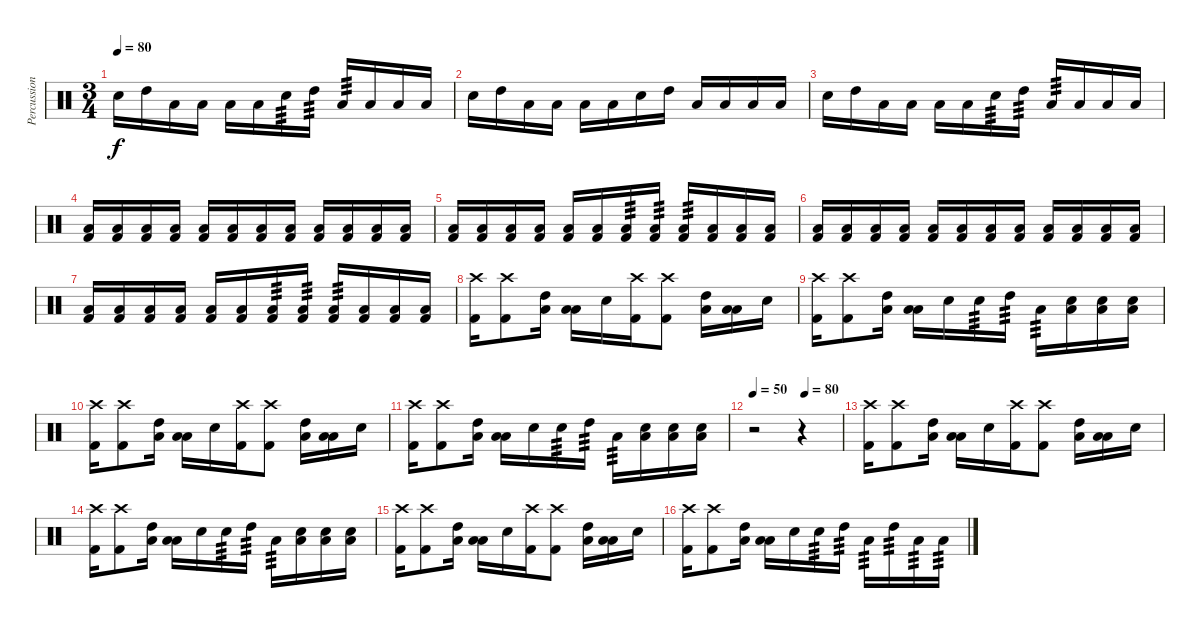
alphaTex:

\track ("Percussion" "Percussion") {instrument percussion}
\staff {score}
\articulation defaults
\ts (3 4)
\tempo 80
\clef neutral
\ks c "Electric Snare (hit)".16{dy f} "High Tom (hit)".16 "Low Tom (hit)".16 "Low Floor Tom (hit)".16 "Low Floor Tom (hit)".16 "Low Floor Tom (hit)".16 "Electric Snare (hit)".16{tp 3} "High Tom (hit)".16{tp 3} "Low Tom (hit)".16{tp 3} "Low Floor Tom (hit)".16 "Low Floor Tom (hit)".16 "Low Floor Tom (hit)".16
|
"Electric Snare (hit)".16 "High Tom (hit)".16 "Low Tom (hit)".16 "Low Floor Tom (hit)".16 "Low Floor Tom (hit)".16 "Low Floor Tom (hit)".16 "Electric Snare (hit)".16 "High Tom (hit)".16 "Low Tom (hit)".16 "Low Floor Tom (hit)".16 "Low Floor Tom (hit)".16 "Low Floor Tom (hit)".16 |
"Electric Snare (hit)".16 "High Tom (hit)".16 "Low Tom (hit)".16 "Low Floor Tom (hit)".16 "Low Floor Tom (hit)".16 "Low Floor Tom (hit)".16 "Electric Snare (hit)".16{tp 3} "High Tom (hit)".16{tp 3} "Low Tom (hit)".16{tp 3} "Low Floor Tom (hit)".16 "Low Floor Tom (hit)".16 "Low Floor Tom (hit)".16 |
("Low Floor Tom (hit)" "Kick (hit) 2").16 ("Low Floor Tom (hit)" "Kick (hit) 2").16 ("Low Floor Tom (hit)" "Kick (hit) 2").16 ("Low Floor Tom (hit)" "Kick (hit) 2").16 ("Low Floor Tom (hit)" "Kick (hit) 2").16 ("Low Floor Tom (hit)" "Kick (hit) 2").16 ("Low Floor Tom (hit)" "Kick (hit) 2").16 ("Low Floor Tom (hit)" "Kick (hit) 2").16 ("Low Floor Tom (hit)" "Kick (hit) 2").16 ("Low Floor Tom (hit)" "Kick (hit) 2").16 ("Low Floor Tom (hit)" "Kick (hit) 2").16 ("Low Floor Tom (hit)" "Kick (hit) 2").16 |
("Low Floor Tom (hit)" "Kick (hit) 2").16 ("Low Floor Tom (hit)" "Kick (hit) 2").16 ("Low Floor Tom (hit)" "Kick (hit) 2").16 ("Low Floor Tom (hit)" "Kick (hit) 2").16 ("Low Floor Tom (hit)" "Kick (hit) 2").16 ("Low Floor Tom (hit)" "Kick (hit) 2").16 ("Low Floor Tom (hit)" "Kick (hit) 2").16{tp 3} ("Low Floor Tom (hit)" "Kick (hit) 2").16{tp 3} ("Low Floor Tom (hit)" "Kick (hit) 2").16{tp 3} ("Low Floor Tom (hit)" "Kick (hit) 2").16 ("Low Floor Tom (hit)" "Kick (hit) 2").16 ("Low Floor Tom (hit)" "Kick (hit) 2").16 |
("Low Floor Tom (hit)" "Kick (hit) 2").16 ("Low Floor Tom (hit)" "Kick (hit) 2").16 ("Low Floor Tom (hit)" "Kick (hit) 2").16 ("Low Floor Tom (hit)" "Kick (hit) 2").16 ("Low Floor Tom (hit)" "Kick (hit) 2").16 ("Low Floor Tom (hit)" "Kick (hit) 2").16 ("Low Floor Tom (hit)" "Kick (hit) 2").16 ("Low Floor Tom (hit)" "Kick (hit) 2").16 ("Low Floor Tom (hit)" "Kick (hit) 2").16 ("Low Floor Tom (hit)" "Kick (hit) 2").16 ("Low Floor Tom (hit)" "Kick (hit) 2").16 ("Low Floor Tom (hit)" "Kick (hit) 2").16 |
("Low Floor Tom (hit)" "Kick (hit) 2").16 ("Low Floor Tom (hit)" "Kick (hit) 2").16 ("Low Floor Tom (hit)" "Kick (hit) 2").16 ("Low Floor Tom (hit)" "Kick (hit) 2").16 ("Low Floor Tom (hit)" "Kick (hit) 2").16 ("Low Floor Tom (hit)" "Kick (hit) 2").16 ("Low Floor Tom (hit)" "Kick (hit) 2").16{tp 3} ("Low Floor Tom (hit)" "Kick (hit) 2").16{tp 3} ("Low Floor Tom (hit)" "Kick (hit) 2").16{tp 3} ("Low Floor Tom (hit)" "Kick (hit) 2").16 ("Low Floor Tom (hit)" "Kick (hit) 2").16 ("Low Floor Tom (hit)" "Kick (hit) 2").16 |
("Crash high (hit)" "Kick (hit) 2").16 ("Crash high (hit)" "Kick (hit) 2").8 ("High Tom (hit)" "Low Tom (hit)").16 ("Low Tom (hit)" "Low Floor Tom (hit)").16 "Electric Snare (hit)".16 ("Crash high (hit)" "Kick (hit) 2").16 ("Crash high (hit)" "Kick (hit) 2").8 ("High Tom (hit)" "Low Tom (hit)").16 ("Low Tom (hit)" "Low Floor Tom (hit)").16 "Electric Snare (hit)".16 |
("Crash high (hit)" "Kick (hit) 2").16 ("Crash high (hit)" "Kick (hit) 2").8 ("High Tom (hit)" "Low Tom (hit)").16 ("Low Tom (hit)" "Low Floor Tom (hit)").16 "Electric Snare (hit)".16 "Electric Snare (hit)".16{tp 3} "High Tom (hit)".16{tp 3} "Low Tom (hit)".16{tp 3} ("Electric Snare (hit)" "Low Floor Tom (hit)").16 ("Electric Snare (hit)" "Low Floor Tom (hit)").16 ("Electric Snare (hit)" "Low Floor Tom (hit)").16 |
("Crash high (hit)" "Kick (hit) 2").16 ("Crash high (hit)" "Kick (hit) 2").8 ("High Tom (hit)" "Low Tom (hit)").16 ("Low Tom (hit)" "Low Floor Tom (hit)").16 "Electric Snare (hit)".16 ("Crash high (hit)" "Kick (hit) 2").16 ("Crash high (hit)" "Kick (hit) 2").8 ("High Tom (hit)" "Low Tom (hit)").16 ("Low Tom (hit)" "Low Floor Tom (hit)").16 "Electric Snare (hit)".16 |
("Crash high (hit)" "Kick (hit) 2").16 ("Crash high (hit)" "Kick (hit) 2").8 ("High Tom (hit)" "Low Tom (hit)").16 ("Low Tom (hit)" "Low Floor Tom (hit)").16 "Electric Snare (hit)".16 "Electric Snare (hit)".16{tp 3} "High Tom (hit)".16{tp 3} "Low Tom (hit)".16{tp 3} ("Electric Snare (hit)" "Low Floor Tom (hit)").16 ("Electric Snare (hit)" "Low Floor Tom (hit)").16 ("Electric Snare (hit)" "Low Floor Tom (hit)").16 |
\tempo 50
\tempo (80 0.5833333333333334)
r.2 r.4 |
("Crash high (hit)" "Kick (hit) 2").16 ("Crash high (hit)" "Kick (hit) 2").8 ("High Tom (hit)" "Low Tom (hit)").16 ("Low Tom (hit)" "Low Floor Tom (hit)").16 "Electric Snare (hit)".16 ("Crash high (hit)" "Kick (hit) 2").16 ("Crash high (hit)" "Kick (hit) 2").8 ("High Tom (hit)" "Low Tom (hit)").16 ("Low Tom (hit)" "Low Floor Tom (hit)").16 "Electric Snare (hit)".16 |
("Crash high (hit)" "Kick (hit) 2").16 ("Crash high (hit)" "Kick (hit) 2").8 ("High Tom (hit)" "Low Tom (hit)").16 ("Low Tom (hit)" "Low Floor Tom (hit)").16 "Electric Snare (hit)".16 "Electric Snare (hit)".16{tp 3} "High Tom (hit)".16{tp 3} "Low Tom (hit)".16{tp 3} ("Electric Snare (hit)" "Low Floor Tom (hit)").16 ("Electric Snare (hit)" "Low Floor Tom (hit)").16 ("Electric Snare (hit)" "Low Floor Tom (hit)").16 |
("Crash high (hit)" "Kick (hit) 2").16 ("Crash high (hit)" "Kick (hit) 2").8 ("High Tom (hit)" "Low Tom (hit)").16 ("Low Tom (hit)" "Low Floor Tom (hit)").16 "Electric Snare (hit)".16 ("Crash high (hit)" "Kick (hit) 2").16 ("Crash high (hit)" "Kick (hit) 2").8 ("High Tom (hit)" "Low Tom (hit)").16 ("Low Tom (hit)" "Low Floor Tom (hit)").16 "Electric Snare (hit)".16 |
("Crash high (hit)" "Kick (hit) 2").16 ("Crash high (hit)" "Kick (hit) 2").8 ("High Tom (hit)" "Low Tom (hit)").16 ("Low Tom (hit)" "Low Floor Tom (hit)").16 "Electric Snare (hit)".16 "Electric Snare (hit)".16{tp 3} "High Tom (hit)".16{tp 3} "Low Tom (hit)".16{tp 3} "High Tom (hit)".16{tp 3} "Low Tom (hit)".16{tp 3} "Low Floor Tom (hit)".16{tp 3}
